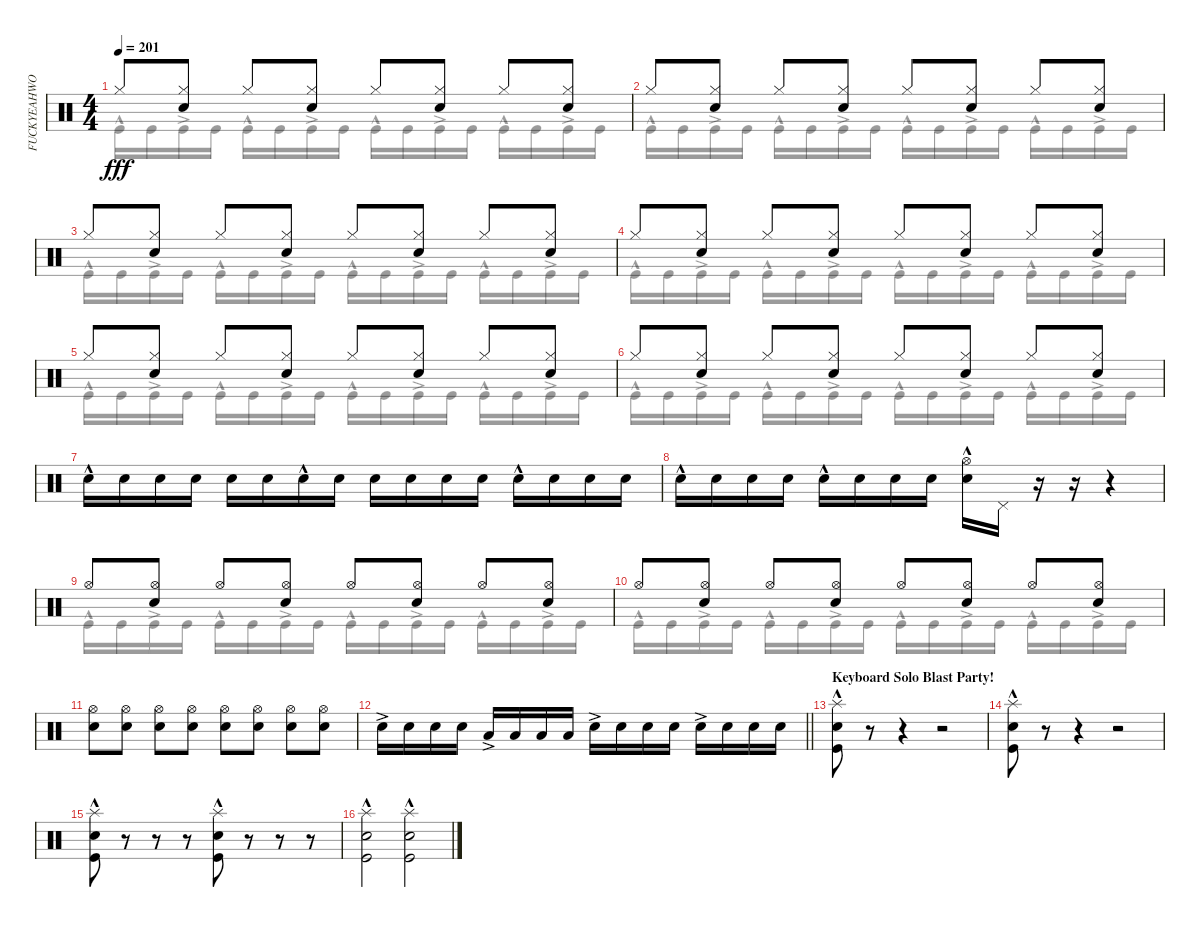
\track ("FUCKYEAHWOOTDAVEMACKINTOSH(Percussion)" "FUCKYEAHWO") {instrument percussion}
\staff {score}
\articulation defaults
\voice
\ts (4 4)
\tempo 201
\clef neutral
\ks c "Hi-Hat (closed)".8{dy fff}
("Hi-Hat (closed)" "Snare (hit) 2").8 "Hi-Hat (closed)".8 ("Snare (hit) 2" "Hi-Hat (closed)").8 "Hi-Hat (closed)".8 ("Hi-Hat (closed)" "Snare (hit) 2").8 "Hi-Hat (closed)".8 ("Hi-Hat (closed)" "Snare (hit) 2").8 |
"Hi-Hat (closed)".8 ("Hi-Hat (closed)" "Snare (hit) 2").8 "Hi-Hat (closed)".8 ("Snare (hit) 2" "Hi-Hat (closed)").8 "Hi-Hat (closed)".8 ("Hi-Hat (closed)" "Snare (hit) 2").8 "Hi-Hat (closed)".8 ("Hi-Hat (closed)" "Snare (hit) 2").8 |
"Hi-Hat (closed)".8 ("Hi-Hat (closed)" "Snare (hit) 2").8 "Hi-Hat (closed)".8 ("Snare (hit) 2" "Hi-Hat (closed)").8 "Hi-Hat (closed)".8 ("Hi-Hat (closed)" "Snare (hit) 2").8 "Hi-Hat (closed)".8 ("Hi-Hat (closed)" "Snare (hit) 2").8 |
"Hi-Hat (closed)".8 ("Hi-Hat (closed)" "Snare (hit) 2").8 "Hi-Hat (closed)".8 ("Snare (hit) 2" "Hi-Hat (closed)").8 "Hi-Hat (closed)".8 ("Hi-Hat (closed)" "Snare (hit) 2").8 "Hi-Hat (closed)".8 ("Hi-Hat (closed)" "Snare (hit) 2").8 |
"Hi-Hat (closed)".8 ("Hi-Hat (closed)" "Snare (hit) 2").8 "Hi-Hat (closed)".8 ("Snare (hit) 2" "Hi-Hat (closed)").8 "Hi-Hat (closed)".8 ("Hi-Hat (closed)" "Snare (hit) 2").8 "Hi-Hat (closed)".8 ("Hi-Hat (closed)" "Snare (hit) 2").8 |
"Hi-Hat (closed)".8 ("Hi-Hat (closed)" "Snare (hit) 2").8 "Hi-Hat (closed)".8 ("Snare (hit) 2" "Hi-Hat (closed)").8 "Hi-Hat (closed)".8 ("Hi-Hat (closed)" "Snare (hit) 2").8 "Hi-Hat (closed)".8 ("Hi-Hat (closed)" "Snare (hit) 2").8 |
"Snare (hit) 2"{hac}.16 "Snare (hit) 2".16 "Snare (hit) 2".16 "Snare (hit) 2".16 "Snare (hit) 2".16 "Snare (hit) 2".16 "Snare (hit) 2"{hac}.16 "Snare (hit) 2".16 "Snare (hit) 2".16 "Snare (hit) 2".16 "Snare (hit) 2".16 "Snare (hit) 2".16 "Snare (hit) 2"{hac}.16 "Snare (hit) 2".16 "Snare (hit) 2".16 "Snare (hit) 2".16 |
"Snare (hit) 2"{hac}.16 "Snare (hit) 2".16 "Snare (hit) 2".16 "Snare (hit) 2".16 "Snare (hit) 2"{hac}.16 "Snare (hit) 2".16 "Snare (hit) 2".16 "Snare (hit) 2".16 ("Snare (hit) 2"{hac} "Hi-Hat (open)").16 "Pedal Hi-Hat (hit)".16 r.16 r.16 r.4 |
"Hi-Hat (open)".8 ("Hi-Hat (open)" "Snare (hit) 2").8 "Hi-Hat (open)".8 ("Snare (hit) 2" "Hi-Hat (open)").8 "Hi-Hat (open)".8 ("Snare (hit) 2" "Hi-Hat (open)").8 "Hi-Hat (open)".8 ("Hi-Hat (open)" "Snare (hit) 2").8 |
"Hi-Hat (open)".8 ("Hi-Hat (open)" "Snare (hit) 2").8 "Hi-Hat (open)".8 ("Snare (hit) 2" "Hi-Hat (open)").8 "Hi-Hat (open)".8 ("Snare (hit) 2" "Hi-Hat (open)").8 "Hi-Hat (open)".8 ("Hi-Hat (open)" "Snare (hit) 2").8 |
("Snare (hit) 2" "Hi-Hat (open)").8 ("Snare (hit) 2" "Hi-Hat (open)").8 ("Hi-Hat (open)" "Snare (hit) 2").8 ("Hi-Hat (open)" "Snare (hit) 2").8 ("Hi-Hat (open)" "Snare (hit) 2").8 ("Hi-Hat (open)" "Snare (hit) 2").8 ("Hi-Hat (open)" "Snare (hit) 2").8 ("Hi-Hat (open)" "Snare (hit) 2").8 |
\barLineRight lightlight "Snare (hit) 2"{ac}.16 "Snare (hit) 2".16 "Snare (hit) 2".16 "Snare (hit) 2".16 "Low Tom (hit)"{ac}.16 "Low Tom (hit)".16 "Low Tom (hit)".16 "Low Tom (hit)".16 "Snare (hit) 2"{ac}.16 "Snare (hit) 2".16 "Snare (hit) 2".16 "Snare (hit) 2".16 "Snare (hit) 2"{ac}.16 "Snare (hit) 2".16 "Snare (hit) 2".16 "Snare (hit) 2".16
|
\section ("" "Keyboard Solo Blast Party!")
("Snare (hit) 2" "Kick (hit)"{hac} "Splash (hit)").8 r.8 r.4 r.2 |
("Snare (hit) 2" "Kick (hit)"{hac} "Splash (hit)").8 r.8 r.4 r.2 |
("Snare (hit) 2" "Kick (hit)"{hac} "Splash (hit)").8 r.8 r.8 r.8 ("Snare (hit) 2" "Kick (hit)"{hac} "Splash (hit)").8 r.8 r.8 r.8 |
("Snare (hit) 2" "Kick (hit)"{hac} "Splash (hit)").2 ("Snare (hit) 2" "Kick (hit)"{hac} "Splash (hit)").2
\voice
\clef neutral
\ottava regular
\simile none
\ks c "Kick (hit)"{hac}.16{dy fff} "Kick (hit)".16 "Kick (hit)"{ac}.16 "Kick (hit)".16 "Kick (hit)"{hac}.16 "Kick (hit)".16 "Kick (hit)"{ac}.16 "Kick (hit)".16 "Kick (hit)"{hac}.16 "Kick (hit)".16 "Kick (hit)"{ac}.16 "Kick (hit)".16 "Kick (hit)"{hac}.16 "Kick (hit)".16 "Kick (hit)"{ac}.16 "Kick (hit)".16
|
"Kick (hit)"{hac}.16 "Kick (hit)".16 "Kick (hit)"{ac}.16 "Kick (hit)".16 "Kick (hit)"{hac}.16 "Kick (hit)".16 "Kick (hit)"{ac}.16 "Kick (hit)".16 "Kick (hit)"{hac}.16 "Kick (hit)".16 "Kick (hit)"{ac}.16 "Kick (hit)".16 "Kick (hit)"{hac}.16 "Kick (hit)".16 "Kick (hit)"{ac}.16 "Kick (hit)".16 |
"Kick (hit)"{hac}.16 "Kick (hit)".16 "Kick (hit)"{ac}.16 "Kick (hit)".16 "Kick (hit)"{hac}.16 "Kick (hit)".16 "Kick (hit)"{ac}.16 "Kick (hit)".16 "Kick (hit)"{hac}.16 "Kick (hit)".16 "Kick (hit)"{ac}.16 "Kick (hit)".16 "Kick (hit)"{hac}.16 "Kick (hit)".16 "Kick (hit)"{ac}.16 "Kick (hit)".16 |
"Kick (hit)"{hac}.16 "Kick (hit)".16 "Kick (hit)"{ac}.16 "Kick (hit)".16 "Kick (hit)"{hac}.16 "Kick (hit)".16 "Kick (hit)"{ac}.16 "Kick (hit)".16 "Kick (hit)"{hac}.16 "Kick (hit)".16 "Kick (hit)"{ac}.16 "Kick (hit)".16 "Kick (hit)"{hac}.16 "Kick (hit)".16 "Kick (hit)"{ac}.16 "Kick (hit)".16 |
"Kick (hit)"{hac}.16 "Kick (hit)".16 "Kick (hit)"{ac}.16 "Kick (hit)".16 "Kick (hit)"{hac}.16 "Kick (hit)".16 "Kick (hit)"{ac}.16 "Kick (hit)".16 "Kick (hit)"{hac}.16 "Kick (hit)".16 "Kick (hit)"{ac}.16 "Kick (hit)".16 "Kick (hit)"{hac}.16 "Kick (hit)".16 "Kick (hit)"{ac}.16 "Kick (hit)".16 |
"Kick (hit)"{hac}.16 "Kick (hit)".16 "Kick (hit)"{ac}.16 "Kick (hit)".16 "Kick (hit)"{hac}.16 "Kick (hit)".16 "Kick (hit)"{ac}.16 "Kick (hit)".16 "Kick (hit)"{hac}.16 "Kick (hit)".16 "Kick (hit)"{ac}.16 "Kick (hit)".16 "Kick (hit)"{hac}.16 "Kick (hit)".16 "Kick (hit)"{ac}.16 "Kick (hit)".16 |
|
|
"Kick (hit)"{hac}.16 "Kick (hit)".16 "Kick (hit)"{ac}.16 "Kick (hit)".16 "Kick (hit)"{hac}.16 "Kick (hit)".16 "Kick (hit)"{ac}.16 "Kick (hit)".16 "Kick (hit)"{hac}.16 "Kick (hit)".16 "Kick (hit)"{ac}.16 "Kick (hit)".16 "Kick (hit)"{hac}.16 "Kick (hit)".16 "Kick (hit)"{ac}.16 "Kick (hit)".16 |
"Kick (hit)"{hac}.16 "Kick (hit)".16 "Kick (hit)"{ac}.16 "Kick (hit)".16 "Kick (hit)"{hac}.16 "Kick (hit)".16 "Kick (hit)"{ac}.16 "Kick (hit)".16 "Kick (hit)"{hac}.16 "Kick (hit)".16 "Kick (hit)"{ac}.16 "Kick (hit)".16 "Kick (hit)"{hac}.16 "Kick (hit)".16 "Kick (hit)"{ac}.16 "Kick (hit)".16 |
|
\barLineRight lightlight
|
|
|
|
